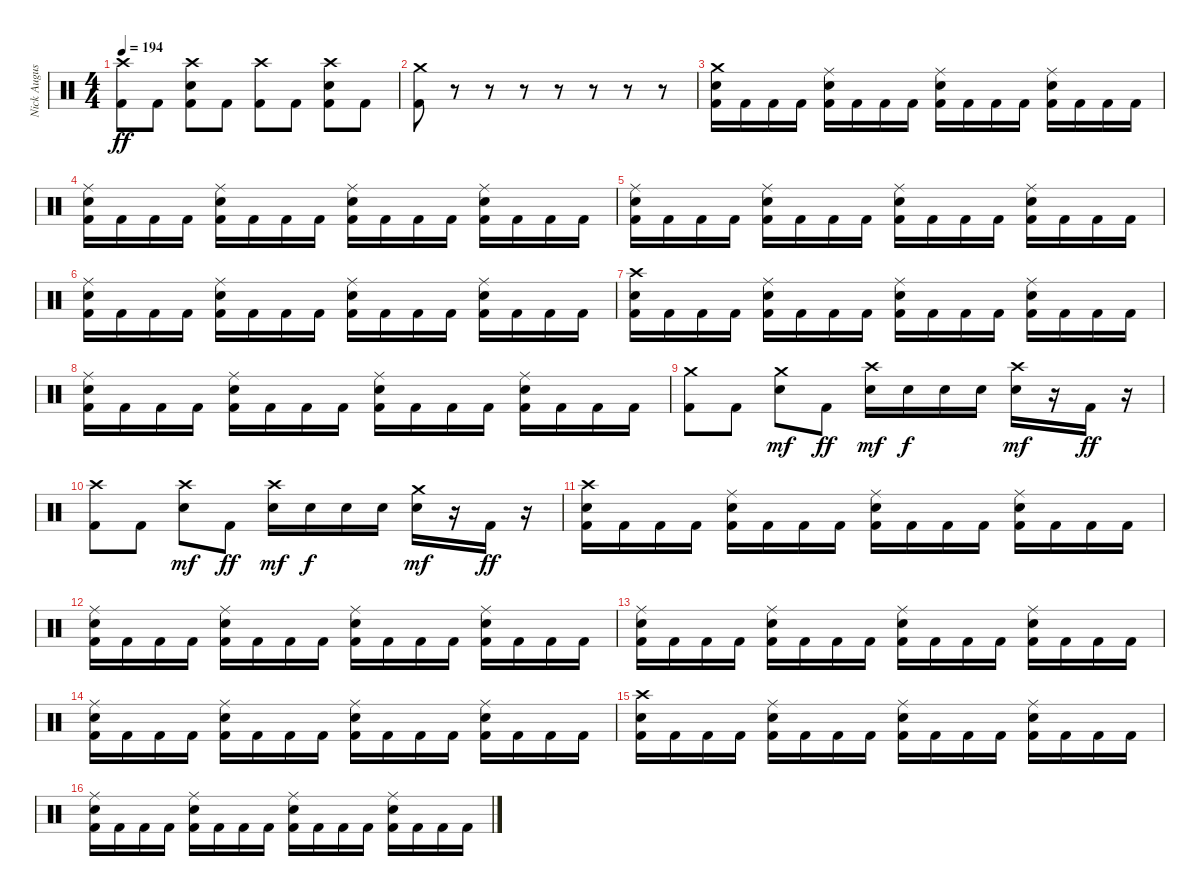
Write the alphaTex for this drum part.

\track ("Nick Augusto" "Nick Augus") {instrument percussion}
\staff {score}
\articulation defaults
\ts (4 4)
\tempo 194
\clef neutral
\ks c
("Crash high (hit)" "Kick (hit) 2").8{dy ff} "Kick (hit) 2".8 ("Crash high (hit)" "Electric Snare (hit)" "Kick (hit) 2").8 "Kick (hit) 2".8 ("Crash high (hit)" "Kick (hit) 2").8 "Kick (hit) 2".8 ("Crash high (hit)" "Electric Snare (hit)" "Kick (hit) 2").8 "Kick (hit) 2".8 |
("Crash medium (hit)" "Kick (hit) 2").8 r.8 r.8 r.8 r.8 r.8 r.8 r.8 |
("Crash medium (hit)" "Electric Snare (hit)" "Kick (hit) 2").16 "Kick (hit) 2".16 "Kick (hit) 2".16 "Kick (hit) 2".16 ("Ride (middle)" "Electric Snare (hit)" "Kick (hit) 2").16 "Kick (hit) 2".16 "Kick (hit) 2".16 "Kick (hit) 2".16 ("Ride (middle)" "Electric Snare (hit)" "Kick (hit) 2").16 "Kick (hit) 2".16 "Kick (hit) 2".16 "Kick (hit) 2".16 ("Ride (middle)" "Electric Snare (hit)" "Kick (hit) 2").16 "Kick (hit) 2".16 "Kick (hit) 2".16 "Kick (hit) 2".16 |
("Ride (middle)" "Electric Snare (hit)" "Kick (hit) 2").16 "Kick (hit) 2".16 "Kick (hit) 2".16 "Kick (hit) 2".16 ("Ride (middle)" "Electric Snare (hit)" "Kick (hit) 2").16 "Kick (hit) 2".16 "Kick (hit) 2".16 "Kick (hit) 2".16 ("Ride (middle)" "Electric Snare (hit)" "Kick (hit) 2").16 "Kick (hit) 2".16 "Kick (hit) 2".16 "Kick (hit) 2".16 ("Ride (middle)" "Electric Snare (hit)" "Kick (hit) 2").16 "Kick (hit) 2".16 "Kick (hit) 2".16 "Kick (hit) 2".16 |
("Ride (middle)" "Electric Snare (hit)" "Kick (hit) 2").16 "Kick (hit) 2".16 "Kick (hit) 2".16 "Kick (hit) 2".16 ("Ride (middle)" "Electric Snare (hit)" "Kick (hit) 2").16 "Kick (hit) 2".16 "Kick (hit) 2".16 "Kick (hit) 2".16 ("Ride (middle)" "Electric Snare (hit)" "Kick (hit) 2").16 "Kick (hit) 2".16 "Kick (hit) 2".16 "Kick (hit) 2".16 ("Ride (middle)" "Electric Snare (hit)" "Kick (hit) 2").16 "Kick (hit) 2".16 "Kick (hit) 2".16 "Kick (hit) 2".16 |
("Ride (middle)" "Electric Snare (hit)" "Kick (hit) 2").16 "Kick (hit) 2".16 "Kick (hit) 2".16 "Kick (hit) 2".16 ("Ride (middle)" "Electric Snare (hit)" "Kick (hit) 2").16 "Kick (hit) 2".16 "Kick (hit) 2".16 "Kick (hit) 2".16 ("Ride (middle)" "Electric Snare (hit)" "Kick (hit) 2").16 "Kick (hit) 2".16 "Kick (hit) 2".16 "Kick (hit) 2".16 ("Ride (middle)" "Electric Snare (hit)" "Kick (hit) 2").16 "Kick (hit) 2".16 "Kick (hit) 2".16 "Kick (hit) 2".16 |
("Crash high (hit)" "Electric Snare (hit)" "Kick (hit) 2").16 "Kick (hit) 2".16 "Kick (hit) 2".16 "Kick (hit) 2".16 ("Ride (middle)" "Electric Snare (hit)" "Kick (hit) 2").16 "Kick (hit) 2".16 "Kick (hit) 2".16 "Kick (hit) 2".16 ("Ride (middle)" "Electric Snare (hit)" "Kick (hit) 2").16 "Kick (hit) 2".16 "Kick (hit) 2".16 "Kick (hit) 2".16 ("Ride (middle)" "Electric Snare (hit)" "Kick (hit) 2").16 "Kick (hit) 2".16 "Kick (hit) 2".16 "Kick (hit) 2".16 |
("Ride (middle)" "Electric Snare (hit)" "Kick (hit) 2").16 "Kick (hit) 2".16 "Kick (hit) 2".16 "Kick (hit) 2".16 ("Ride (middle)" "Electric Snare (hit)" "Kick (hit) 2").16 "Kick (hit) 2".16 "Kick (hit) 2".16 "Kick (hit) 2".16 ("Ride (middle)" "Electric Snare (hit)" "Kick (hit) 2").16 "Kick (hit) 2".16 "Kick (hit) 2".16 "Kick (hit) 2".16 ("Ride (middle)" "Electric Snare (hit)" "Kick (hit) 2").16 "Kick (hit) 2".16 "Kick (hit) 2".16 "Kick (hit) 2".16 |
("Crash medium (hit)" "Kick (hit) 2").8 "Kick (hit) 2".8 ("Crash medium (hit)" "Electric Snare (hit)").8{dy mf} "Kick (hit) 2".8{dy ff} ("Crash high (hit)" "Electric Snare (hit)").16{dy mf} "Electric Snare (hit)".16{dy f} "Electric Snare (hit)".16 "Electric Snare (hit)".16 ("Crash high (hit)" "Electric Snare (hit)").16{dy mf} r.16 "Kick (hit) 2".16{dy ff} r.16 |
("Crash high (hit)" "Kick (hit) 2").8 "Kick (hit) 2".8 ("Crash high (hit)" "Electric Snare (hit)").8{dy mf} "Kick (hit) 2".8{dy ff} ("Crash high (hit)" "Electric Snare (hit)").16{dy mf} "Electric Snare (hit)".16{dy f} "Electric Snare (hit)".16 "Electric Snare (hit)".16 ("Crash medium (hit)" "Electric Snare (hit)").16{dy mf} r.16 "Kick (hit) 2".16{dy ff} r.16 |
("Crash high (hit)" "Electric Snare (hit)" "Kick (hit) 2").16 "Kick (hit) 2".16 "Kick (hit) 2".16 "Kick (hit) 2".16 ("Ride (middle)" "Electric Snare (hit)" "Kick (hit) 2").16 "Kick (hit) 2".16 "Kick (hit) 2".16 "Kick (hit) 2".16 ("Ride (middle)" "Electric Snare (hit)" "Kick (hit) 2").16 "Kick (hit) 2".16 "Kick (hit) 2".16 "Kick (hit) 2".16 ("Ride (middle)" "Electric Snare (hit)" "Kick (hit) 2").16 "Kick (hit) 2".16 "Kick (hit) 2".16 "Kick (hit) 2".16 |
("Ride (middle)" "Electric Snare (hit)" "Kick (hit) 2").16 "Kick (hit) 2".16 "Kick (hit) 2".16 "Kick (hit) 2".16 ("Ride (middle)" "Electric Snare (hit)" "Kick (hit) 2").16 "Kick (hit) 2".16 "Kick (hit) 2".16 "Kick (hit) 2".16 ("Ride (middle)" "Electric Snare (hit)" "Kick (hit) 2").16 "Kick (hit) 2".16 "Kick (hit) 2".16 "Kick (hit) 2".16 ("Ride (middle)" "Electric Snare (hit)" "Kick (hit) 2").16 "Kick (hit) 2".16 "Kick (hit) 2".16 "Kick (hit) 2".16 |
("Ride (middle)" "Electric Snare (hit)" "Kick (hit) 2").16 "Kick (hit) 2".16 "Kick (hit) 2".16 "Kick (hit) 2".16 ("Ride (middle)" "Electric Snare (hit)" "Kick (hit) 2").16 "Kick (hit) 2".16 "Kick (hit) 2".16 "Kick (hit) 2".16 ("Ride (middle)" "Electric Snare (hit)" "Kick (hit) 2").16 "Kick (hit) 2".16 "Kick (hit) 2".16 "Kick (hit) 2".16 ("Ride (middle)" "Electric Snare (hit)" "Kick (hit) 2").16 "Kick (hit) 2".16 "Kick (hit) 2".16 "Kick (hit) 2".16 |
("Ride (middle)" "Electric Snare (hit)" "Kick (hit) 2").16 "Kick (hit) 2".16 "Kick (hit) 2".16 "Kick (hit) 2".16 ("Ride (middle)" "Electric Snare (hit)" "Kick (hit) 2").16 "Kick (hit) 2".16 "Kick (hit) 2".16 "Kick (hit) 2".16 ("Ride (middle)" "Electric Snare (hit)" "Kick (hit) 2").16 "Kick (hit) 2".16 "Kick (hit) 2".16 "Kick (hit) 2".16 ("Ride (middle)" "Electric Snare (hit)" "Kick (hit) 2").16 "Kick (hit) 2".16 "Kick (hit) 2".16 "Kick (hit) 2".16 |
("Crash high (hit)" "Electric Snare (hit)" "Kick (hit) 2").16 "Kick (hit) 2".16 "Kick (hit) 2".16 "Kick (hit) 2".16 ("Ride (middle)" "Electric Snare (hit)" "Kick (hit) 2").16 "Kick (hit) 2".16 "Kick (hit) 2".16 "Kick (hit) 2".16 ("Ride (middle)" "Electric Snare (hit)" "Kick (hit) 2").16 "Kick (hit) 2".16 "Kick (hit) 2".16 "Kick (hit) 2".16 ("Ride (middle)" "Electric Snare (hit)" "Kick (hit) 2").16 "Kick (hit) 2".16 "Kick (hit) 2".16 "Kick (hit) 2".16 |
("Ride (middle)" "Electric Snare (hit)" "Kick (hit) 2").16 "Kick (hit) 2".16 "Kick (hit) 2".16 "Kick (hit) 2".16 ("Ride (middle)" "Electric Snare (hit)" "Kick (hit) 2").16 "Kick (hit) 2".16 "Kick (hit) 2".16 "Kick (hit) 2".16 ("Ride (middle)" "Electric Snare (hit)" "Kick (hit) 2").16 "Kick (hit) 2".16 "Kick (hit) 2".16 "Kick (hit) 2".16 ("Ride (middle)" "Electric Snare (hit)" "Kick (hit) 2").16 "Kick (hit) 2".16 "Kick (hit) 2".16 "Kick (hit) 2".16
